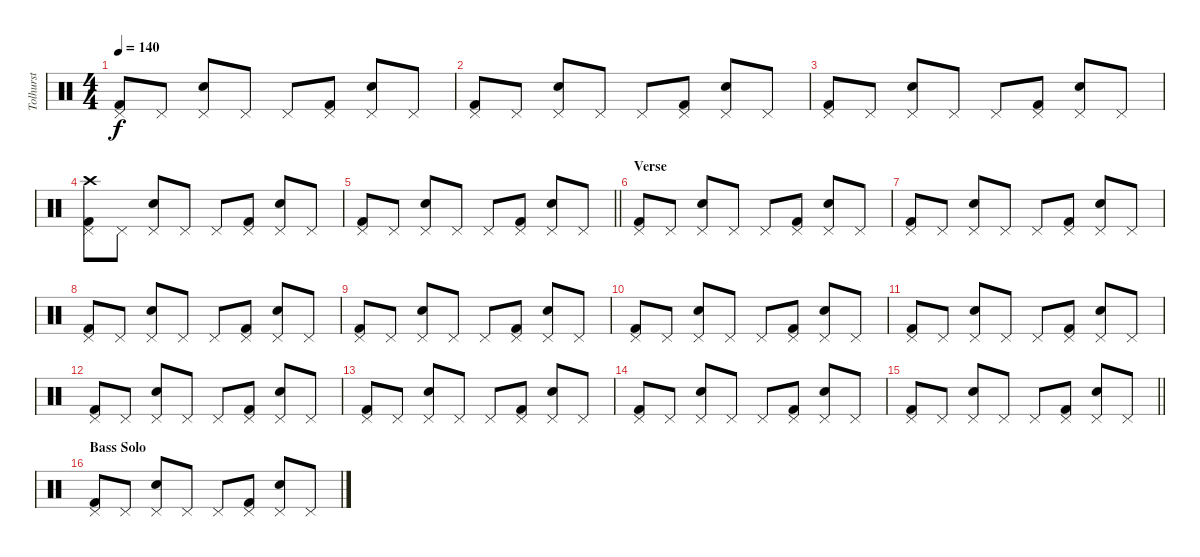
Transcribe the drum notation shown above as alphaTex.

\track ("Tolhurst" "Tolhurst") {instrument percussion}
\staff {score}
\articulation defaults
\ts (4 4)
\tempo 140
\clef neutral
\ks c
("Kick (hit) 2" "Pedal Hi-Hat (hit)").8{dy f} "Pedal Hi-Hat (hit)".8 ("Snare (hit) 2" "Pedal Hi-Hat (hit)").8 "Pedal Hi-Hat (hit)".8 "Pedal Hi-Hat (hit)".8 ("Kick (hit) 2" "Pedal Hi-Hat (hit)").8 ("Snare (hit) 2" "Pedal Hi-Hat (hit)").8 "Pedal Hi-Hat (hit)".8 |
("Kick (hit) 2" "Pedal Hi-Hat (hit)").8 "Pedal Hi-Hat (hit)".8 ("Snare (hit) 2" "Pedal Hi-Hat (hit)").8 "Pedal Hi-Hat (hit)".8 "Pedal Hi-Hat (hit)".8 ("Kick (hit) 2" "Pedal Hi-Hat (hit)").8 ("Snare (hit) 2" "Pedal Hi-Hat (hit)").8 "Pedal Hi-Hat (hit)".8 |
("Kick (hit) 2" "Pedal Hi-Hat (hit)").8 "Pedal Hi-Hat (hit)".8 ("Snare (hit) 2" "Pedal Hi-Hat (hit)").8 "Pedal Hi-Hat (hit)".8 "Pedal Hi-Hat (hit)".8 ("Kick (hit) 2" "Pedal Hi-Hat (hit)").8 ("Snare (hit) 2" "Pedal Hi-Hat (hit)").8 "Pedal Hi-Hat (hit)".8 |
("Kick (hit) 2" "Pedal Hi-Hat (hit)" "Crash high (hit)").8 "Pedal Hi-Hat (hit)".8 ("Snare (hit) 2" "Pedal Hi-Hat (hit)").8 "Pedal Hi-Hat (hit)".8 "Pedal Hi-Hat (hit)".8 ("Kick (hit) 2" "Pedal Hi-Hat (hit)").8 ("Snare (hit) 2" "Pedal Hi-Hat (hit)").8 "Pedal Hi-Hat (hit)".8 |
\barLineRight lightlight
("Kick (hit) 2" "Pedal Hi-Hat (hit)").8 "Pedal Hi-Hat (hit)".8 ("Snare (hit) 2" "Pedal Hi-Hat (hit)").8 "Pedal Hi-Hat (hit)".8 "Pedal Hi-Hat (hit)".8 ("Kick (hit) 2" "Pedal Hi-Hat (hit)").8 ("Snare (hit) 2" "Pedal Hi-Hat (hit)").8 "Pedal Hi-Hat (hit)".8 |
\section ("" "Verse")
("Kick (hit) 2" "Pedal Hi-Hat (hit)").8 "Pedal Hi-Hat (hit)".8 ("Snare (hit) 2" "Pedal Hi-Hat (hit)").8 "Pedal Hi-Hat (hit)".8 "Pedal Hi-Hat (hit)".8 ("Kick (hit) 2" "Pedal Hi-Hat (hit)").8 ("Snare (hit) 2" "Pedal Hi-Hat (hit)").8 "Pedal Hi-Hat (hit)".8 |
("Kick (hit) 2" "Pedal Hi-Hat (hit)").8 "Pedal Hi-Hat (hit)".8 ("Snare (hit) 2" "Pedal Hi-Hat (hit)").8 "Pedal Hi-Hat (hit)".8 "Pedal Hi-Hat (hit)".8 ("Kick (hit) 2" "Pedal Hi-Hat (hit)").8 ("Snare (hit) 2" "Pedal Hi-Hat (hit)").8 "Pedal Hi-Hat (hit)".8 |
("Kick (hit) 2" "Pedal Hi-Hat (hit)").8 "Pedal Hi-Hat (hit)".8 ("Snare (hit) 2" "Pedal Hi-Hat (hit)").8 "Pedal Hi-Hat (hit)".8 "Pedal Hi-Hat (hit)".8 ("Kick (hit) 2" "Pedal Hi-Hat (hit)").8 ("Snare (hit) 2" "Pedal Hi-Hat (hit)").8 "Pedal Hi-Hat (hit)".8 |
("Kick (hit) 2" "Pedal Hi-Hat (hit)").8 "Pedal Hi-Hat (hit)".8 ("Snare (hit) 2" "Pedal Hi-Hat (hit)").8 "Pedal Hi-Hat (hit)".8 "Pedal Hi-Hat (hit)".8 ("Kick (hit) 2" "Pedal Hi-Hat (hit)").8 ("Snare (hit) 2" "Pedal Hi-Hat (hit)").8 "Pedal Hi-Hat (hit)".8 |
("Kick (hit) 2" "Pedal Hi-Hat (hit)").8 "Pedal Hi-Hat (hit)".8 ("Snare (hit) 2" "Pedal Hi-Hat (hit)").8 "Pedal Hi-Hat (hit)".8 "Pedal Hi-Hat (hit)".8 ("Kick (hit) 2" "Pedal Hi-Hat (hit)").8 ("Snare (hit) 2" "Pedal Hi-Hat (hit)").8 "Pedal Hi-Hat (hit)".8 |
("Kick (hit) 2" "Pedal Hi-Hat (hit)").8 "Pedal Hi-Hat (hit)".8 ("Snare (hit) 2" "Pedal Hi-Hat (hit)").8 "Pedal Hi-Hat (hit)".8 "Pedal Hi-Hat (hit)".8 ("Kick (hit) 2" "Pedal Hi-Hat (hit)").8 ("Snare (hit) 2" "Pedal Hi-Hat (hit)").8 "Pedal Hi-Hat (hit)".8 |
("Kick (hit) 2" "Pedal Hi-Hat (hit)").8 "Pedal Hi-Hat (hit)".8 ("Snare (hit) 2" "Pedal Hi-Hat (hit)").8 "Pedal Hi-Hat (hit)".8 "Pedal Hi-Hat (hit)".8 ("Kick (hit) 2" "Pedal Hi-Hat (hit)").8 ("Snare (hit) 2" "Pedal Hi-Hat (hit)").8 "Pedal Hi-Hat (hit)".8 |
("Kick (hit) 2" "Pedal Hi-Hat (hit)").8 "Pedal Hi-Hat (hit)".8 ("Snare (hit) 2" "Pedal Hi-Hat (hit)").8 "Pedal Hi-Hat (hit)".8 "Pedal Hi-Hat (hit)".8 ("Kick (hit) 2" "Pedal Hi-Hat (hit)").8 ("Snare (hit) 2" "Pedal Hi-Hat (hit)").8 "Pedal Hi-Hat (hit)".8 |
("Kick (hit) 2" "Pedal Hi-Hat (hit)").8 "Pedal Hi-Hat (hit)".8 ("Snare (hit) 2" "Pedal Hi-Hat (hit)").8 "Pedal Hi-Hat (hit)".8 "Pedal Hi-Hat (hit)".8 ("Kick (hit) 2" "Pedal Hi-Hat (hit)").8 ("Snare (hit) 2" "Pedal Hi-Hat (hit)").8 "Pedal Hi-Hat (hit)".8 |
\barLineRight lightlight
("Kick (hit) 2" "Pedal Hi-Hat (hit)").8 "Pedal Hi-Hat (hit)".8 ("Snare (hit) 2" "Pedal Hi-Hat (hit)").8 "Pedal Hi-Hat (hit)".8 "Pedal Hi-Hat (hit)".8 ("Kick (hit) 2" "Pedal Hi-Hat (hit)").8 ("Snare (hit) 2" "Pedal Hi-Hat (hit)").8 "Pedal Hi-Hat (hit)".8 |
\section ("" "Bass Solo")
("Kick (hit) 2" "Pedal Hi-Hat (hit)").8 "Pedal Hi-Hat (hit)".8 ("Snare (hit) 2" "Pedal Hi-Hat (hit)").8 "Pedal Hi-Hat (hit)".8 "Pedal Hi-Hat (hit)".8 ("Kick (hit) 2" "Pedal Hi-Hat (hit)").8 ("Snare (hit) 2" "Pedal Hi-Hat (hit)").8 "Pedal Hi-Hat (hit)".8
